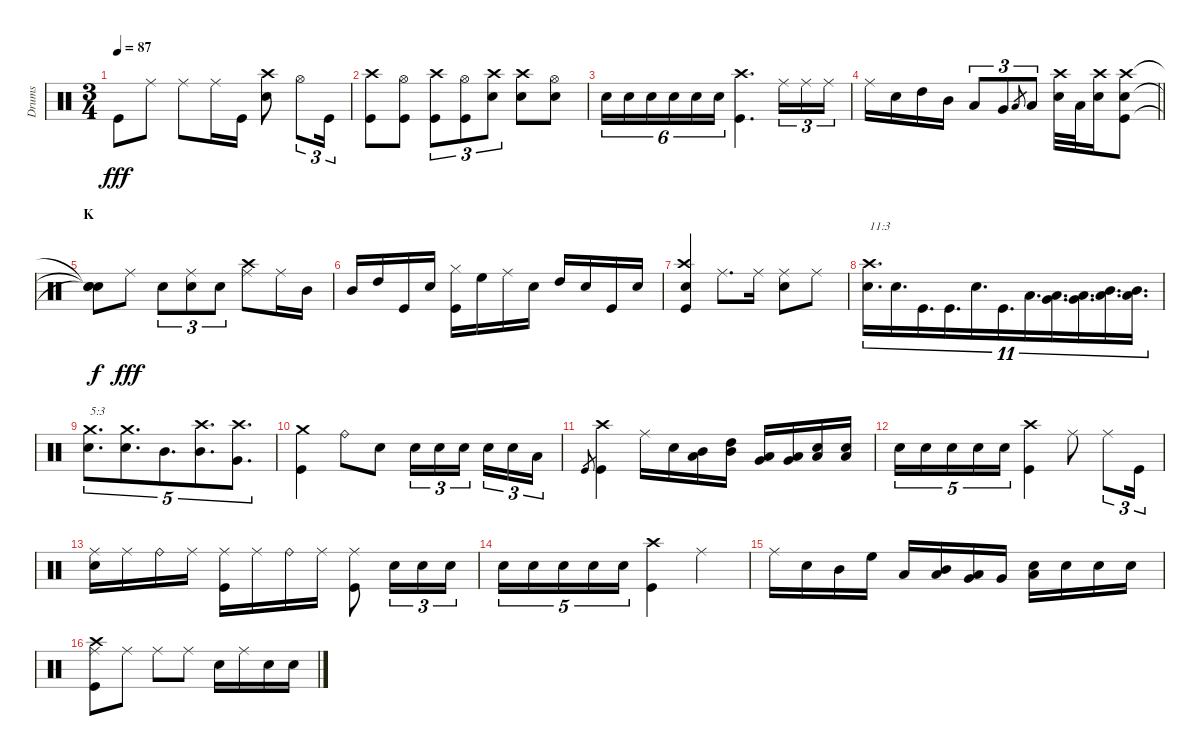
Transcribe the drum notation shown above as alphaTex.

\track ("Drums" "Drums") {instrument percussion}
\staff {score}
\articulation defaults
\ts (3 4)
\tempo 87
\clef neutral
\ks c "Kick (hit)".8{dy fff} "Ride (middle)".8 "Ride (middle)".8 "Ride (middle)".16 "Kick (hit)".16
("Crash high (hit)" "Snare (hit) 2").8 "Hi-Hat (open)".8{tu (3 2)} "Kick (hit)".16{tu (3 2)} |
("Crash high (hit)" "Kick (hit)").8 ("Hi-Hat (open)" "Kick (hit)").8 ("Crash high (hit)" "Kick (hit)").8{tu (3 2)} ("Hi-Hat (open)" "Kick (hit)").8{tu (3 2)} ("Crash high (hit)" "Snare (hit) 2").8{tu (3 2)} ("Crash high (hit)" "Snare (hit) 2").8 ("Hi-Hat (open)" "Snare (hit) 2").8 |
"Snare (hit) 2".16{tu (6 4)} "Snare (hit) 2".16{tu (6 4)} "Snare (hit) 2".16{tu (6 4)} "Snare (hit) 2".16{tu (6 4)} "Snare (hit) 2".16{tu (6 4)} "Snare (hit) 2".16{tu (6 4)} ("Crash high (hit)" "Kick (hit)").4{d} "Ride (middle)".16{tu (3 2)} "Ride (middle)".16{tu (3 2)} "Ride (middle)".16{tu (3 2)} |
\barLineRight lightlight "Ride (middle)".16 "Snare (hit) 2".16 "High Tom (hit)".16 "Mid Tom (hit)".16 "Low Tom (hit)".8{tu (3 2)} "Very Low Tom (hit)".8{tu (3 2)} "Low Floor Tom (hit)".8{gr} "Low Floor Tom (hit)".8{tu (3 2)}
("Crash high (hit)" "Snare (hit) 2").32 "Low Floor Tom (hit)".32 ("Crash high (hit)" "Snare (hit) 2").16 ("Crash high (hit)" "Snare (hit) 2" "Kick (hit)").8 |
\section ("" "K")
("Snare (hit)"{t} "Snare (hit)"{t} "Snare (hit)"{t}).8{dy f} "Ride (middle)".8{dy fff} "Snare (hit) 2".8{tu (3 2)} ("Ride (middle)" "Snare (hit) 2").8{tu (3 2)} "Snare (hit) 2".8{tu (3 2)} ("Ride (middle)" "Crash high (hit)").8 "Ride (middle)".16 "Mid Tom (hit)".16 |
"Mid Tom (hit)".16 "High Tom (hit)".16 "Kick (hit)".16 "Snare (hit) 2".16 ("Hi-Hat (closed)" "Kick (hit)").16 "High Floor Tom (hit)".16 "Ride (middle)".16 "Snare (hit) 2".16 "High Tom (hit)".16 "Snare (hit) 2".16 "Kick (hit)".16 "Snare (hit) 2".16 |
("Crash high (hit)" "Snare (hit) 2" "Kick (hit)").4 "Ride (middle)".8{d} "Ride (middle)".16 ("Ride (middle)" "Snare (hit) 2").8 "Ride (middle)".8 |
("Crash high (hit)" "Snare (hit) 2").16{d tu (11 8) txt "11:3"} "Snare (hit) 2".16{d tu (11 8)} "Kick (hit)".16{d tu (11 8)} "Kick (hit)".16{d tu (11 8)} "Snare (hit) 2".16{d tu (11 8)} "Kick (hit)".16{d tu (11 8)} "Low Floor Tom (hit)".16{d tu (11 8)} ("Very Low Tom (hit)" "Low Floor Tom (hit)").16{d tu (11 8)} ("Very Low Tom (hit)" "Low Floor Tom (hit)").16{d tu (11 8)} ("Mid Tom (hit)" "Low Tom (hit)").16{d tu (11 8)} ("Mid Tom (hit)" "Low Tom (hit)").16{d tu (11 8)} |
("Crash medium (hit)" "Snare (hit) 2").8{d tu (5 4) txt "5:3"} ("Crash medium (hit)" "Snare (hit) 2").8{d tu (5 4)} "Mid Tom (hit)".8{d tu (5 4)} ("Crash high (hit)" "Mid Tom (hit)").8{d tu (5 4)} ("Crash high (hit)" "Very Low Tom (hit)").8{d tu (5 4)} |
("Crash medium (hit)" "Kick (hit)").4 "Ride (bell)".8 "Snare (hit) 2".8 "Snare (hit) 2".16{tu (3 2)} "Snare (hit) 2".16{tu (3 2)} "Snare (hit) 2".16{tu (3 2)} "Snare (hit) 2".16{tu (3 2)} "Snare (hit) 2".16{tu (3 2)} "Low Floor Tom (hit)".16{tu (3 2)} |
"Kick (hit)".8{gr} ("Crash high (hit)" "Kick (hit)").4 "Ride (middle)".16 "Snare (hit) 2".16 ("Mid Tom (hit)" "Low Tom (hit)").16 ("High Tom (hit)" "Mid Tom (hit)").16 ("Low Tom (hit)" "Very Low Tom (hit)").16 ("Low Tom (hit)" "Very Low Tom (hit)").16 ("Low Floor Tom (hit)" "Snare (hit) 2").16 ("Low Floor Tom (hit)" "Snare (hit) 2").16 |
"Snare (hit) 2".16{tu (5 4)} "Snare (hit) 2".16{tu (5 4)} "Snare (hit) 2".16{tu (5 4)} "Snare (hit) 2".16{tu (5 4)} "Snare (hit) 2".16{tu (5 4)} ("Crash high (hit)" "Kick (hit)").4 "Ride (middle)".8 "Ride (middle)".8{tu (3 2)} "Kick (hit)".16{tu (3 2)} |
("Ride (middle)" "Snare (hit) 2").16 "Ride (middle)".16 "Ride (bell)".16 "Ride (middle)".16 ("Ride (middle)" "Kick (hit)").16 "Ride (middle)".16 "Ride (bell)".16 "Ride (middle)".16 ("Ride (middle)" "Kick (hit)").8 "Snare (hit) 2".16{tu (3 2)} "Snare (hit) 2".16{tu (3 2)} "Snare (hit) 2".16{tu (3 2)} |
"Snare (hit) 2".16{tu (5 4)} "Snare (hit) 2".16{tu (5 4)} "Snare (hit) 2".16{tu (5 4)} "Snare (hit) 2".16{tu (5 4)} "Snare (hit) 2".16{tu (5 4)} ("Crash high (hit)" "Kick (hit)").4 "Ride (middle)".4 |
"Ride (middle)".16 "Snare (hit) 2".16 "Mid Tom (hit)".16 "High Floor Tom (hit)".16 "Low Tom (hit)".16 ("Mid Tom (hit)" "Low Tom (hit)").16 ("Very Low Tom (hit)" "Low Floor Tom (hit)").16 "Very Low Tom (hit)".16 ("Low Floor Tom (hit)" "Snare (hit) 2").16 "Snare (hit) 2".16 "Snare (hit) 2".16 "Snare (hit) 2".16 |
("Ride (middle)" "Crash high (hit)" "Kick (hit)").8 "Ride (middle)".8 "Ride (middle)".8 "Ride (middle)".8 "Snare (hit) 2".16 "Ride (middle)".16 "Snare (hit) 2".16 "Snare (hit) 2".16
